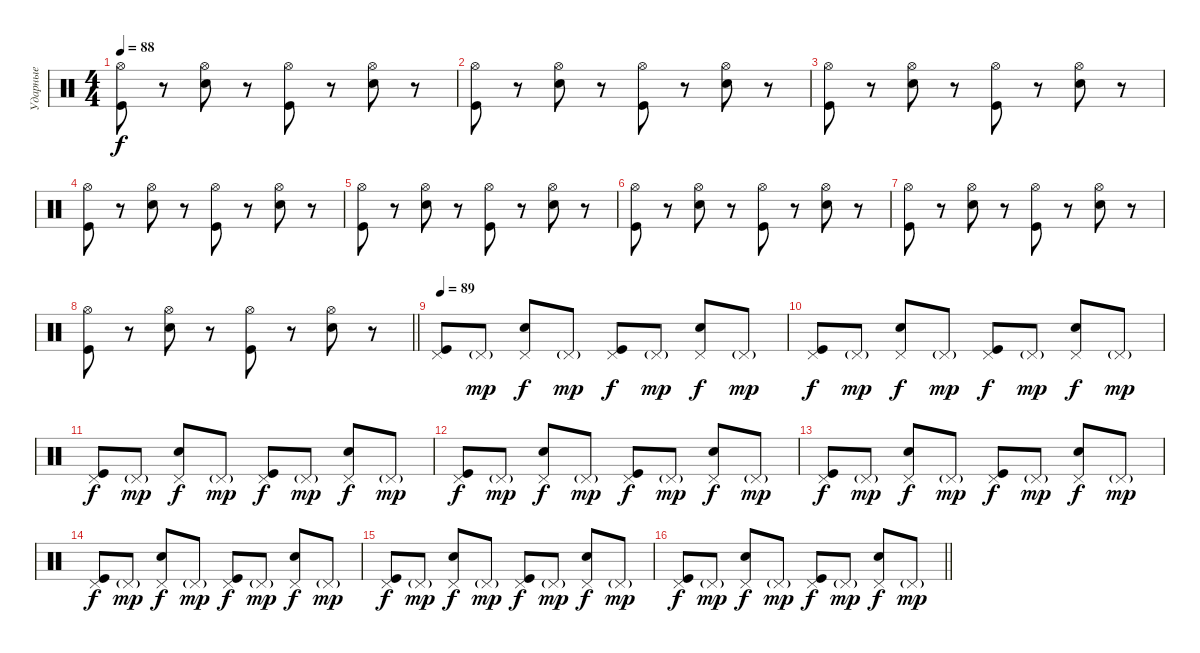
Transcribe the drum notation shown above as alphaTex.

\track ("Ударные" "Ударные") {instrument percussion}
\staff {score}
\articulation defaults
\ts (4 4)
\tempo 88
\clef neutral
\ks c
("Hi-Hat (open)" "Kick (hit)").8{dy f} r.8 ("Hi-Hat (open)" "Snare (hit) 2").8 r.8 ("Hi-Hat (open)" "Kick (hit)").8 r.8 ("Hi-Hat (open)" "Snare (hit) 2").8 r.8 |
("Hi-Hat (open)" "Kick (hit)").8 r.8 ("Hi-Hat (open)" "Snare (hit) 2").8 r.8 ("Hi-Hat (open)" "Kick (hit)").8 r.8 ("Hi-Hat (open)" "Snare (hit) 2").8 r.8 |
("Hi-Hat (open)" "Kick (hit)").8 r.8 ("Hi-Hat (open)" "Snare (hit) 2").8 r.8 ("Hi-Hat (open)" "Kick (hit)").8 r.8 ("Hi-Hat (open)" "Snare (hit) 2").8 r.8 |
("Hi-Hat (open)" "Kick (hit)").8 r.8 ("Hi-Hat (open)" "Snare (hit) 2").8 r.8 ("Hi-Hat (open)" "Kick (hit)").8 r.8 ("Hi-Hat (open)" "Snare (hit) 2").8 r.8 |
("Hi-Hat (open)" "Kick (hit)").8 r.8 ("Hi-Hat (open)" "Snare (hit) 2").8 r.8 ("Hi-Hat (open)" "Kick (hit)").8 r.8 ("Hi-Hat (open)" "Snare (hit) 2").8 r.8 |
("Hi-Hat (open)" "Kick (hit)").8 r.8 ("Hi-Hat (open)" "Snare (hit) 2").8 r.8 ("Hi-Hat (open)" "Kick (hit)").8 r.8 ("Hi-Hat (open)" "Snare (hit) 2").8 r.8 |
("Hi-Hat (open)" "Kick (hit)").8 r.8 ("Hi-Hat (open)" "Snare (hit) 2").8 r.8 ("Hi-Hat (open)" "Kick (hit)").8 r.8 ("Hi-Hat (open)" "Snare (hit) 2").8 r.8 |
\barLineRight lightlight
("Hi-Hat (open)" "Kick (hit)").8 r.8 ("Hi-Hat (open)" "Snare (hit) 2").8 r.8 ("Hi-Hat (open)" "Kick (hit)").8 r.8 ("Hi-Hat (open)" "Snare (hit) 2").8 r.8 |
\tempo 89
("Pedal Hi-Hat (hit)" "Kick (hit)").8 "Pedal Hi-Hat (hit)"{g}.8{dy mp} ("Pedal Hi-Hat (hit)" "Snare (hit) 2").8{dy f} "Pedal Hi-Hat (hit)"{g}.8{dy mp} ("Pedal Hi-Hat (hit)" "Kick (hit)").8{dy f} "Pedal Hi-Hat (hit)"{g}.8{dy mp} ("Pedal Hi-Hat (hit)" "Snare (hit) 2").8{dy f} "Pedal Hi-Hat (hit)"{g}.8{dy mp} |
("Pedal Hi-Hat (hit)" "Kick (hit)").8{dy f} "Pedal Hi-Hat (hit)"{g}.8{dy mp} ("Pedal Hi-Hat (hit)" "Snare (hit) 2").8{dy f} "Pedal Hi-Hat (hit)"{g}.8{dy mp} ("Pedal Hi-Hat (hit)" "Kick (hit)").8{dy f} "Pedal Hi-Hat (hit)"{g}.8{dy mp} ("Pedal Hi-Hat (hit)" "Snare (hit) 2").8{dy f} "Pedal Hi-Hat (hit)"{g}.8{dy mp} |
("Pedal Hi-Hat (hit)" "Kick (hit)").8{dy f} "Pedal Hi-Hat (hit)"{g}.8{dy mp} ("Pedal Hi-Hat (hit)" "Snare (hit) 2").8{dy f} "Pedal Hi-Hat (hit)"{g}.8{dy mp} ("Pedal Hi-Hat (hit)" "Kick (hit)").8{dy f} "Pedal Hi-Hat (hit)"{g}.8{dy mp} ("Pedal Hi-Hat (hit)" "Snare (hit) 2").8{dy f} "Pedal Hi-Hat (hit)"{g}.8{dy mp} |
("Pedal Hi-Hat (hit)" "Kick (hit)").8{dy f} "Pedal Hi-Hat (hit)"{g}.8{dy mp} ("Pedal Hi-Hat (hit)" "Snare (hit) 2").8{dy f} "Pedal Hi-Hat (hit)"{g}.8{dy mp} ("Pedal Hi-Hat (hit)" "Kick (hit)").8{dy f} "Pedal Hi-Hat (hit)"{g}.8{dy mp} ("Pedal Hi-Hat (hit)" "Snare (hit) 2").8{dy f} "Pedal Hi-Hat (hit)"{g}.8{dy mp} |
("Pedal Hi-Hat (hit)" "Kick (hit)").8{dy f} "Pedal Hi-Hat (hit)"{g}.8{dy mp} ("Pedal Hi-Hat (hit)" "Snare (hit) 2").8{dy f} "Pedal Hi-Hat (hit)"{g}.8{dy mp} ("Pedal Hi-Hat (hit)" "Kick (hit)").8{dy f} "Pedal Hi-Hat (hit)"{g}.8{dy mp} ("Pedal Hi-Hat (hit)" "Snare (hit) 2").8{dy f} "Pedal Hi-Hat (hit)"{g}.8{dy mp} |
("Pedal Hi-Hat (hit)" "Kick (hit)").8{dy f} "Pedal Hi-Hat (hit)"{g}.8{dy mp} ("Pedal Hi-Hat (hit)" "Snare (hit) 2").8{dy f} "Pedal Hi-Hat (hit)"{g}.8{dy mp} ("Pedal Hi-Hat (hit)" "Kick (hit)").8{dy f} "Pedal Hi-Hat (hit)"{g}.8{dy mp} ("Pedal Hi-Hat (hit)" "Snare (hit) 2").8{dy f} "Pedal Hi-Hat (hit)"{g}.8{dy mp} |
("Pedal Hi-Hat (hit)" "Kick (hit)").8{dy f} "Pedal Hi-Hat (hit)"{g}.8{dy mp} ("Pedal Hi-Hat (hit)" "Snare (hit) 2").8{dy f} "Pedal Hi-Hat (hit)"{g}.8{dy mp} ("Pedal Hi-Hat (hit)" "Kick (hit)").8{dy f} "Pedal Hi-Hat (hit)"{g}.8{dy mp} ("Pedal Hi-Hat (hit)" "Snare (hit) 2").8{dy f} "Pedal Hi-Hat (hit)"{g}.8{dy mp} |
\barLineRight lightlight
("Pedal Hi-Hat (hit)" "Kick (hit)").8{dy f} "Pedal Hi-Hat (hit)"{g}.8{dy mp} ("Pedal Hi-Hat (hit)" "Snare (hit) 2").8{dy f} "Pedal Hi-Hat (hit)"{g}.8{dy mp} ("Pedal Hi-Hat (hit)" "Kick (hit)").8{dy f} "Pedal Hi-Hat (hit)"{g}.8{dy mp} ("Pedal Hi-Hat (hit)" "Snare (hit) 2").8{dy f} "Pedal Hi-Hat (hit)"{g}.8{dy mp}
